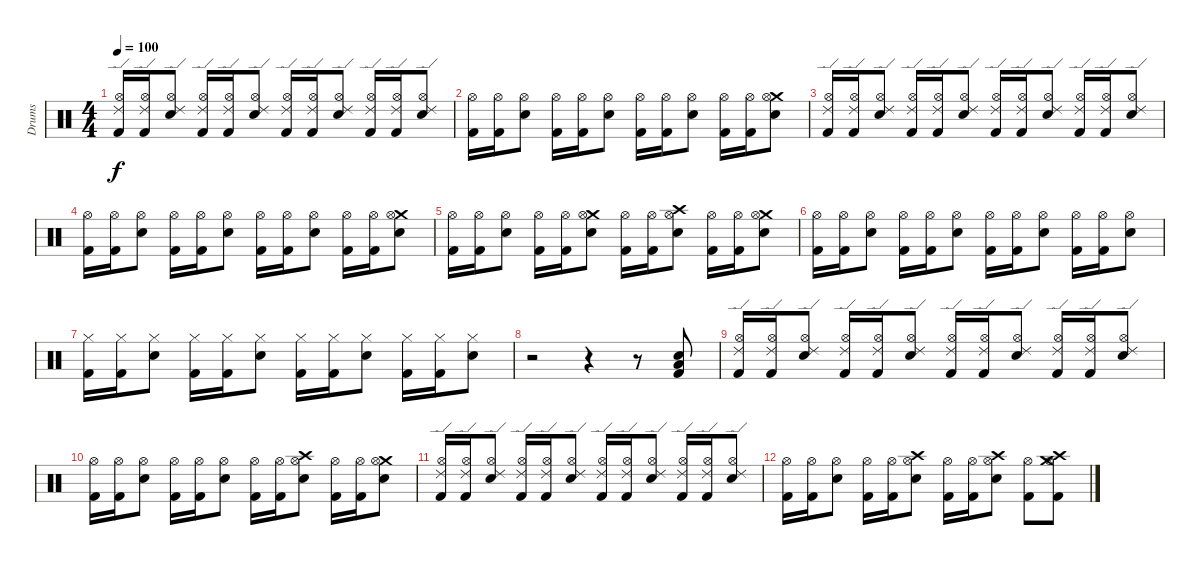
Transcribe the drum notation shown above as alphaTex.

\track ("Drums" "Drums") {instrument percussion}
\staff {score}
\articulation defaults
\ts (4 4)
\tempo 100
\clef neutral
\ks c
("Ride (edge) 2" "Hi-Hat (open)" "Kick (hit) 2").16{dy f} ("Ride (edge) 2" "Hi-Hat (open)" "Kick (hit) 2").16 ("Ride (edge) 2" "Hi-Hat (open)" "Snare (hit) 2").8 ("Ride (edge) 2" "Hi-Hat (open)" "Kick (hit) 2").16 ("Ride (edge) 2" "Hi-Hat (open)" "Kick (hit) 2").16 ("Ride (edge) 2" "Hi-Hat (open)" "Snare (hit) 2").8 ("Ride (edge) 2" "Hi-Hat (open)" "Kick (hit) 2").16 ("Ride (edge) 2" "Hi-Hat (open)" "Kick (hit) 2").16 ("Ride (edge) 2" "Hi-Hat (open)" "Snare (hit) 2").8 ("Ride (edge) 2" "Hi-Hat (open)" "Kick (hit) 2").16 ("Ride (edge) 2" "Hi-Hat (open)" "Kick (hit) 2").16 ("Ride (edge) 2" "Hi-Hat (open)" "Snare (hit) 2").8 |
("Hi-Hat (open)" "Kick (hit) 2").16 ("Hi-Hat (open)" "Kick (hit) 2").16 ("Hi-Hat (open)" "Snare (hit) 2").8 ("Hi-Hat (open)" "Kick (hit) 2").16 ("Hi-Hat (open)" "Kick (hit) 2").16 ("Hi-Hat (open)" "Snare (hit) 2").8 ("Hi-Hat (open)" "Kick (hit) 2").16 ("Hi-Hat (open)" "Kick (hit) 2").16 ("Hi-Hat (open)" "Snare (hit) 2").8 ("Hi-Hat (open)" "Kick (hit) 2").16 ("Hi-Hat (open)" "Kick (hit) 2").16 ("Crash medium (hit)" "Hi-Hat (open)" "Snare (hit) 2").8 |
("Ride (edge) 2" "Hi-Hat (open)" "Kick (hit) 2").16 ("Ride (edge) 2" "Hi-Hat (open)" "Kick (hit) 2").16 ("Ride (edge) 2" "Hi-Hat (open)" "Snare (hit) 2").8 ("Ride (edge) 2" "Hi-Hat (open)" "Kick (hit) 2").16 ("Ride (edge) 2" "Hi-Hat (open)" "Kick (hit) 2").16 ("Ride (edge) 2" "Hi-Hat (open)" "Snare (hit) 2").8 ("Ride (edge) 2" "Hi-Hat (open)" "Kick (hit) 2").16 ("Ride (edge) 2" "Hi-Hat (open)" "Kick (hit) 2").16 ("Ride (edge) 2" "Hi-Hat (open)" "Snare (hit) 2").8 ("Ride (edge) 2" "Hi-Hat (open)" "Kick (hit) 2").16 ("Ride (edge) 2" "Hi-Hat (open)" "Kick (hit) 2").16 ("Ride (edge) 2" "Hi-Hat (open)" "Snare (hit) 2").8 |
("Hi-Hat (open)" "Kick (hit) 2").16 ("Hi-Hat (open)" "Kick (hit) 2").16 ("Hi-Hat (open)" "Snare (hit) 2").8 ("Hi-Hat (open)" "Kick (hit) 2").16 ("Hi-Hat (open)" "Kick (hit) 2").16 ("Hi-Hat (open)" "Snare (hit) 2").8 ("Hi-Hat (open)" "Kick (hit) 2").16 ("Hi-Hat (open)" "Kick (hit) 2").16 ("Hi-Hat (open)" "Snare (hit) 2").8 ("Hi-Hat (open)" "Kick (hit) 2").16 ("Hi-Hat (open)" "Kick (hit) 2").16 ("Crash medium (hit)" "Hi-Hat (open)" "Snare (hit) 2").8 |
("Hi-Hat (open)" "Kick (hit) 2").16 ("Hi-Hat (open)" "Kick (hit) 2").16 ("Hi-Hat (open)" "Snare (hit) 2").8 ("Hi-Hat (open)" "Kick (hit) 2").16 ("Hi-Hat (open)" "Kick (hit) 2").16 ("Crash medium (hit)" "Hi-Hat (open)" "Snare (hit) 2").8 ("Hi-Hat (open)" "Kick (hit) 2").16 ("Hi-Hat (open)" "Kick (hit) 2").16 ("Crash high (hit)" "Hi-Hat (open)" "Snare (hit) 2").8 ("Hi-Hat (open)" "Kick (hit) 2").16 ("Hi-Hat (open)" "Kick (hit) 2").16 ("Crash medium (hit)" "Hi-Hat (open)" "Snare (hit) 2").8 |
("Hi-Hat (open)" "Kick (hit) 2").16 ("Hi-Hat (open)" "Kick (hit) 2").16 ("Hi-Hat (open)" "Snare (hit) 2").8 ("Hi-Hat (open)" "Kick (hit) 2").16 ("Hi-Hat (open)" "Kick (hit) 2").16 ("Hi-Hat (open)" "Snare (hit) 2").8 ("Hi-Hat (open)" "Kick (hit) 2").16 ("Hi-Hat (open)" "Kick (hit) 2").16 ("Hi-Hat (open)" "Snare (hit) 2").8 ("Hi-Hat (open)" "Kick (hit) 2").16 ("Hi-Hat (open)" "Kick (hit) 2").16 ("Hi-Hat (open)" "Snare (hit) 2").8 |
("Hi-Hat (closed)" "Kick (hit) 2").16 ("Hi-Hat (closed)" "Kick (hit) 2").16 ("Hi-Hat (closed)" "Snare (hit) 2").8 ("Hi-Hat (closed)" "Kick (hit) 2").16 ("Hi-Hat (closed)" "Kick (hit) 2").16 ("Hi-Hat (closed)" "Snare (hit) 2").8 ("Hi-Hat (closed)" "Kick (hit) 2").16 ("Hi-Hat (closed)" "Kick (hit) 2").16 ("Hi-Hat (closed)" "Snare (hit) 2").8 ("Hi-Hat (closed)" "Kick (hit) 2").16 ("Hi-Hat (closed)" "Kick (hit) 2").16 ("Hi-Hat (closed)" "Snare (hit) 2").8 |
r.2 r.4 r.8 ("Low Floor Tom (hit)" "Snare (hit) 2" "Kick (hit) 2").8 |
("Ride (edge) 2" "Hi-Hat (open)" "Kick (hit) 2").16 ("Ride (edge) 2" "Hi-Hat (open)" "Kick (hit) 2").16 ("Ride (edge) 2" "Hi-Hat (open)" "Snare (hit) 2").8 ("Ride (edge) 2" "Hi-Hat (open)" "Kick (hit) 2").16 ("Ride (edge) 2" "Hi-Hat (open)" "Kick (hit) 2").16 ("Ride (edge) 2" "Hi-Hat (open)" "Snare (hit) 2").8 ("Ride (edge) 2" "Hi-Hat (open)" "Kick (hit) 2").16 ("Ride (edge) 2" "Hi-Hat (open)" "Kick (hit) 2").16 ("Ride (edge) 2" "Hi-Hat (open)" "Snare (hit) 2").8 ("Ride (edge) 2" "Hi-Hat (open)" "Kick (hit) 2").16 ("Ride (edge) 2" "Hi-Hat (open)" "Kick (hit) 2").16 ("Ride (edge) 2" "Hi-Hat (open)" "Snare (hit) 2").8 |
("Hi-Hat (open)" "Kick (hit) 2").16 ("Hi-Hat (open)" "Kick (hit) 2").16 ("Hi-Hat (open)" "Snare (hit) 2").8 ("Hi-Hat (open)" "Kick (hit) 2").16 ("Hi-Hat (open)" "Kick (hit) 2").16 ("Hi-Hat (open)" "Snare (hit) 2").8 ("Hi-Hat (open)" "Kick (hit) 2").16 ("Hi-Hat (open)" "Kick (hit) 2").16 ("Crash high (hit)" "Hi-Hat (open)" "Snare (hit) 2").8 ("Hi-Hat (open)" "Kick (hit) 2").16 ("Hi-Hat (open)" "Kick (hit) 2").16 ("Crash medium (hit)" "Hi-Hat (open)" "Snare (hit) 2").8 |
("Ride (edge) 2" "Hi-Hat (open)" "Kick (hit) 2").16 ("Ride (edge) 2" "Hi-Hat (open)" "Kick (hit) 2").16 ("Ride (edge) 2" "Hi-Hat (open)" "Snare (hit) 2").8 ("Ride (edge) 2" "Hi-Hat (open)" "Kick (hit) 2").16 ("Ride (edge) 2" "Hi-Hat (open)" "Kick (hit) 2").16 ("Ride (edge) 2" "Hi-Hat (open)" "Snare (hit) 2").8 ("Ride (edge) 2" "Hi-Hat (open)" "Kick (hit) 2").16 ("Ride (edge) 2" "Hi-Hat (open)" "Kick (hit) 2").16 ("Ride (edge) 2" "Hi-Hat (open)" "Snare (hit) 2").8 ("Ride (edge) 2" "Hi-Hat (open)" "Kick (hit) 2").16 ("Ride (edge) 2" "Hi-Hat (open)" "Kick (hit) 2").16 ("Ride (edge) 2" "Hi-Hat (open)" "Snare (hit) 2").8 |
("Hi-Hat (open)" "Kick (hit) 2").16 ("Hi-Hat (open)" "Kick (hit) 2").16 ("Hi-Hat (open)" "Snare (hit) 2").8 ("Hi-Hat (open)" "Kick (hit) 2").16 ("Hi-Hat (open)" "Kick (hit) 2").16 ("Crash high (hit)" "Hi-Hat (open)" "Snare (hit) 2").8 ("Hi-Hat (open)" "Kick (hit) 2").16 ("Hi-Hat (open)" "Kick (hit) 2").16 ("Crash high (hit)" "Hi-Hat (open)" "Snare (hit) 2").8 ("Hi-Hat (open)" "Kick (hit) 2").8 ("Crash medium (hit)" "Hi-Hat (open)" "Crash high (hit)" "Kick (hit) 2").8
